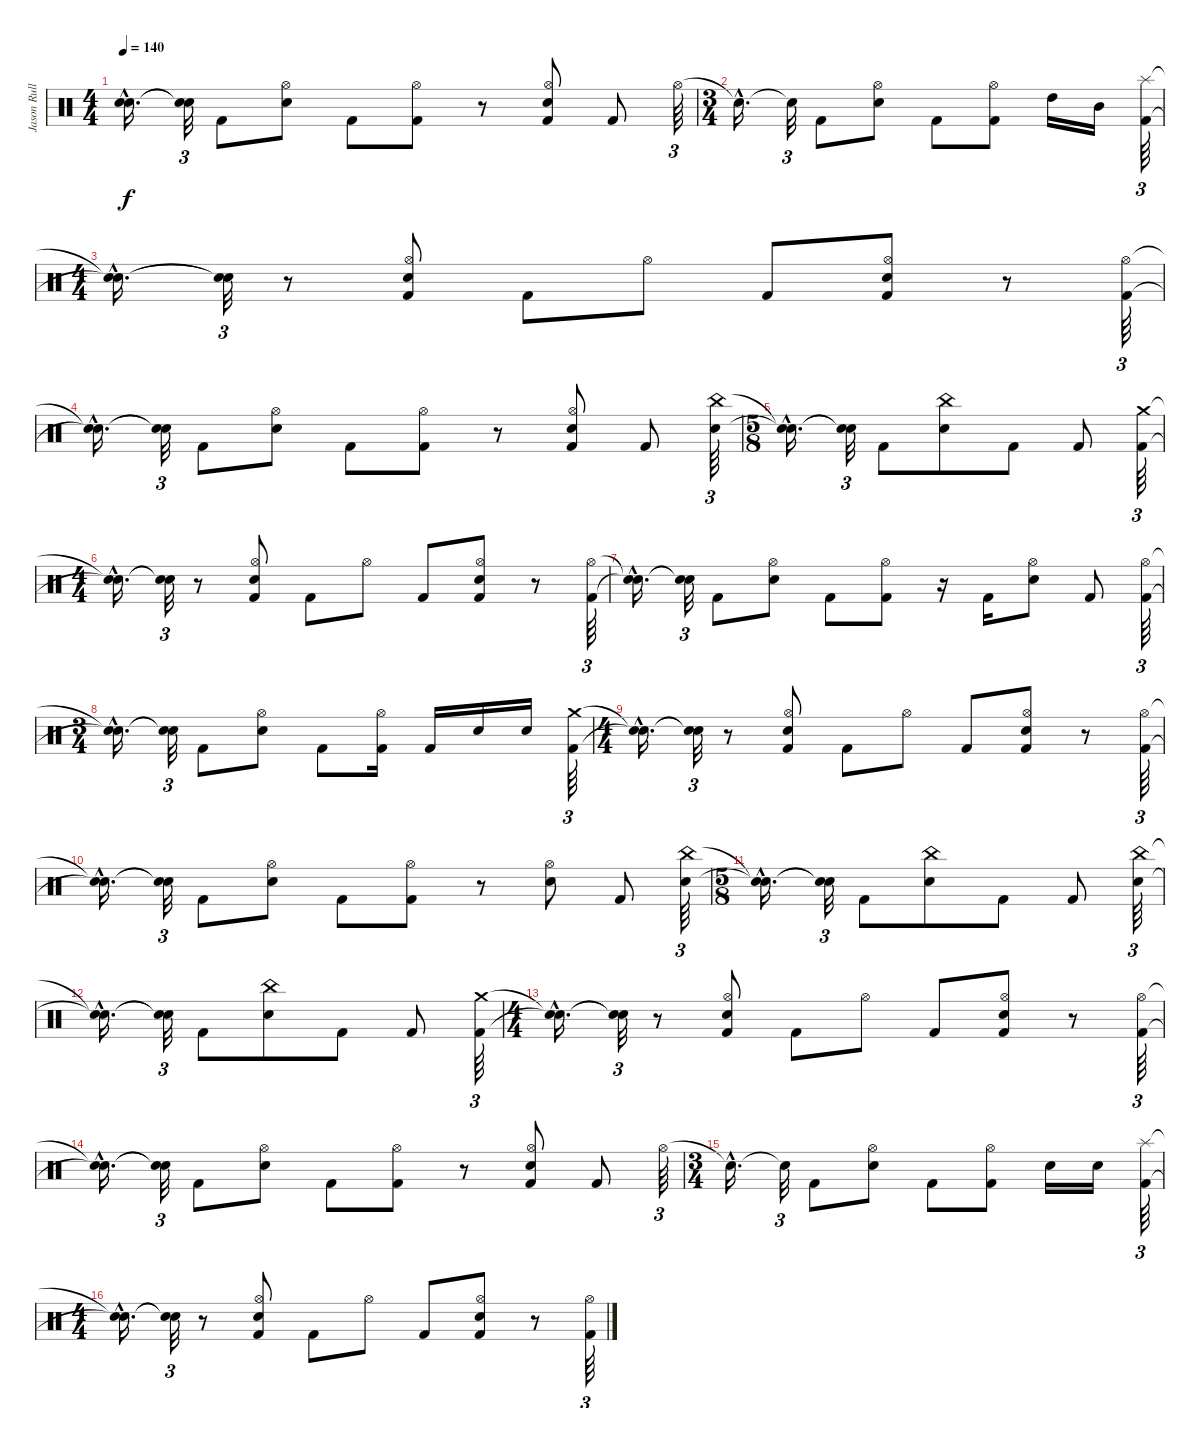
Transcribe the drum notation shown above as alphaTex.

\track ("Jason Rullo" "Jason Rull") {instrument percussion}
\staff {score}
\articulation defaults
\ts (4 4)
\tempo 140
\clef neutral
\ks c
("Snare (hit)"{hac t} "Snare (hit)"{hac t}).16{d dy f} ("Snare (hit)"{t} "Snare (hit)"{t}).32{tu (3 2)} "Kick (hit) 2".8 ("Hi-Hat (open)" "Electric Snare (hit)").8 "Kick (hit) 2".8 ("Hi-Hat (open)" "Kick (hit) 2").8 r.8 ("Hi-Hat (open)" "Electric Snare (hit)" "Kick (hit) 2").8 "Kick (hit) 2".8 "Hi-Hat (open)".64{tu (3 2)} |
\ts (3 4)
"Snare (hit)"{hac t}.16{d} "Snare (hit)"{t}.32{tu (3 2)} "Kick (hit) 2".8 ("Hi-Hat (open)" "Electric Snare (hit)").8 "Kick (hit) 2".8 ("Hi-Hat (open)" "Kick (hit) 2").8 "High Tom (hit)".16 "Mid Tom (hit)".16 ("Splash (hit)" "Kick (hit) 2").64{tu (3 2)} |
\ts (4 4)
("Snare (hit)"{hac t} "Snare (hit)"{hac t}).16{d} ("Snare (hit)"{t} "Snare (hit)"{t}).32{tu (3 2)} r.8 ("Hi-Hat (open)" "Electric Snare (hit)" "Kick (hit) 2").8 "Kick (hit) 2".8 "Hi-Hat (open)".8 "Kick (hit) 2".8 ("Hi-Hat (open)" "Kick (hit) 2" "Electric Snare (hit)").8 r.8 ("Hi-Hat (open)" "Kick (hit) 2").64{tu (3 2)} |
("Snare (hit)"{hac t} "Snare (hit)"{hac t}).16{d} ("Snare (hit)"{t} "Snare (hit)"{t}).32{tu (3 2)} "Kick (hit) 2".8 ("Hi-Hat (open)" "Electric Snare (hit)").8 "Kick (hit) 2".8 ("Hi-Hat (open)" "Kick (hit) 2").8 r.8 ("Hi-Hat (open)" "Electric Snare (hit)" "Kick (hit) 2").8 "Kick (hit) 2".8 ("China (hit)" "Electric Snare (hit)").64{tu (3 2)} |
\ts (5 8)
("Snare (hit)"{hac t} "Snare (hit)"{hac t}).16{d} ("Snare (hit)"{t} "Snare (hit)"{t}).32{tu (3 2)} "Kick (hit) 2".8 ("China (hit)" "Electric Snare (hit)").8 "Kick (hit) 2".8 "Kick (hit) 2".8 ("Crash medium (hit)" "Kick (hit) 2").64{tu (3 2)} |
\ts (4 4)
("Snare (hit)"{hac t} "Snare (hit)"{hac t}).16{d} ("Snare (hit)"{t} "Snare (hit)"{t}).32{tu (3 2)} r.8 ("Hi-Hat (open)" "Electric Snare (hit)" "Kick (hit) 2").8 "Kick (hit) 2".8 "Hi-Hat (open)".8 "Kick (hit) 2".8 ("Hi-Hat (open)" "Kick (hit) 2" "Electric Snare (hit)").8 r.8 ("Hi-Hat (open)" "Kick (hit) 2").64{tu (3 2)} |
("Snare (hit)"{hac t} "Snare (hit)"{hac t}).16{d} ("Snare (hit)"{t} "Snare (hit)"{t}).32{tu (3 2)} "Kick (hit) 2".8 ("Hi-Hat (open)" "Electric Snare (hit)").8 "Kick (hit) 2".8 ("Hi-Hat (open)" "Kick (hit) 2").8 r.16 "Kick (hit) 2".16 ("Hi-Hat (open)" "Electric Snare (hit)").8 "Kick (hit) 2".8 ("Hi-Hat (open)" "Kick (hit) 2").64{tu (3 2)} |
\ts (3 4)
("Snare (hit)"{hac t} "Snare (hit)"{hac t}).16{d} ("Snare (hit)"{t} "Snare (hit)"{t}).32{tu (3 2)} "Kick (hit) 2".8 ("Hi-Hat (open)" "Electric Snare (hit)").8 "Kick (hit) 2".8 ("Hi-Hat (open)" "Kick (hit) 2").16 "Kick (hit) 2".16 "Electric Snare (hit)".16 "Electric Snare (hit)".16 ("Crash medium (hit)" "Kick (hit) 2").64{tu (3 2)} |
\ts (4 4)
("Snare (hit)"{hac t} "Snare (hit)"{hac t}).16{d} ("Snare (hit)"{t} "Snare (hit)"{t}).32{tu (3 2)} r.8 ("Hi-Hat (open)" "Electric Snare (hit)" "Kick (hit) 2").8 "Kick (hit) 2".8 "Hi-Hat (open)".8 "Kick (hit) 2".8 ("Hi-Hat (open)" "Kick (hit) 2" "Electric Snare (hit)").8 r.8 ("Hi-Hat (open)" "Kick (hit) 2").64{tu (3 2)} |
("Snare (hit)"{hac t} "Snare (hit)"{hac t}).16{d} ("Snare (hit)"{t} "Snare (hit)"{t}).32{tu (3 2)} "Kick (hit) 2".8 ("Hi-Hat (open)" "Electric Snare (hit)").8 "Kick (hit) 2".8 ("Hi-Hat (open)" "Kick (hit) 2").8 r.8 ("Hi-Hat (open)" "Electric Snare (hit)").8 "Kick (hit) 2".8 ("China (hit)" "Electric Snare (hit)").64{tu (3 2)} |
\ts (5 8)
("Snare (hit)"{hac t} "Snare (hit)"{hac t}).16{d} ("Snare (hit)"{t} "Snare (hit)"{t}).32{tu (3 2)} "Kick (hit) 2".8 ("China (hit)" "Electric Snare (hit)").8 "Kick (hit) 2".8 "Kick (hit) 2".8 ("China (hit)" "Electric Snare (hit)").64{tu (3 2)} |
("Snare (hit)"{hac t} "Snare (hit)"{hac t}).16{d} ("Snare (hit)"{t} "Snare (hit)"{t}).32{tu (3 2)} "Kick (hit) 2".8 ("China (hit)" "Electric Snare (hit)").8 "Kick (hit) 2".8 "Kick (hit) 2".8 ("Crash medium (hit)" "Kick (hit) 2").64{tu (3 2)} |
\ts (4 4)
("Snare (hit)"{hac t} "Snare (hit)"{hac t}).16{d} ("Snare (hit)"{t} "Snare (hit)"{t}).32{tu (3 2)} r.8 ("Hi-Hat (open)" "Electric Snare (hit)" "Kick (hit) 2").8 "Kick (hit) 2".8 "Hi-Hat (open)".8 "Kick (hit) 2".8 ("Hi-Hat (open)" "Kick (hit) 2" "Electric Snare (hit)").8 r.8 ("Hi-Hat (open)" "Kick (hit) 2").64{tu (3 2)} |
("Snare (hit)"{hac t} "Snare (hit)"{hac t}).16{d} ("Snare (hit)"{t} "Snare (hit)"{t}).32{tu (3 2)} "Kick (hit) 2".8 ("Hi-Hat (open)" "Electric Snare (hit)").8 "Kick (hit) 2".8 ("Hi-Hat (open)" "Kick (hit) 2").8 r.8 ("Hi-Hat (open)" "Electric Snare (hit)" "Kick (hit) 2").8 "Kick (hit) 2".8 "Hi-Hat (open)".64{tu (3 2)} |
\ts (3 4)
"Snare (hit)"{hac t}.16{d} "Snare (hit)"{t}.32{tu (3 2)} "Kick (hit) 2".8 ("Hi-Hat (open)" "Electric Snare (hit)").8 "Kick (hit) 2".8 ("Hi-Hat (open)" "Kick (hit) 2").8 "Electric Snare (hit)".16 "Electric Snare (hit)".16 ("Splash (hit)" "Kick (hit) 2").64{tu (3 2)} |
\ts (4 4)
("Snare (hit)"{hac t} "Snare (hit)"{hac t}).16{d} ("Snare (hit)"{t} "Snare (hit)"{t}).32{tu (3 2)} r.8 ("Hi-Hat (open)" "Electric Snare (hit)" "Kick (hit) 2").8 "Kick (hit) 2".8 "Hi-Hat (open)".8 "Kick (hit) 2".8 ("Hi-Hat (open)" "Kick (hit) 2" "Electric Snare (hit)").8 r.8 ("Hi-Hat (open)" "Kick (hit) 2").64{tu (3 2)}
